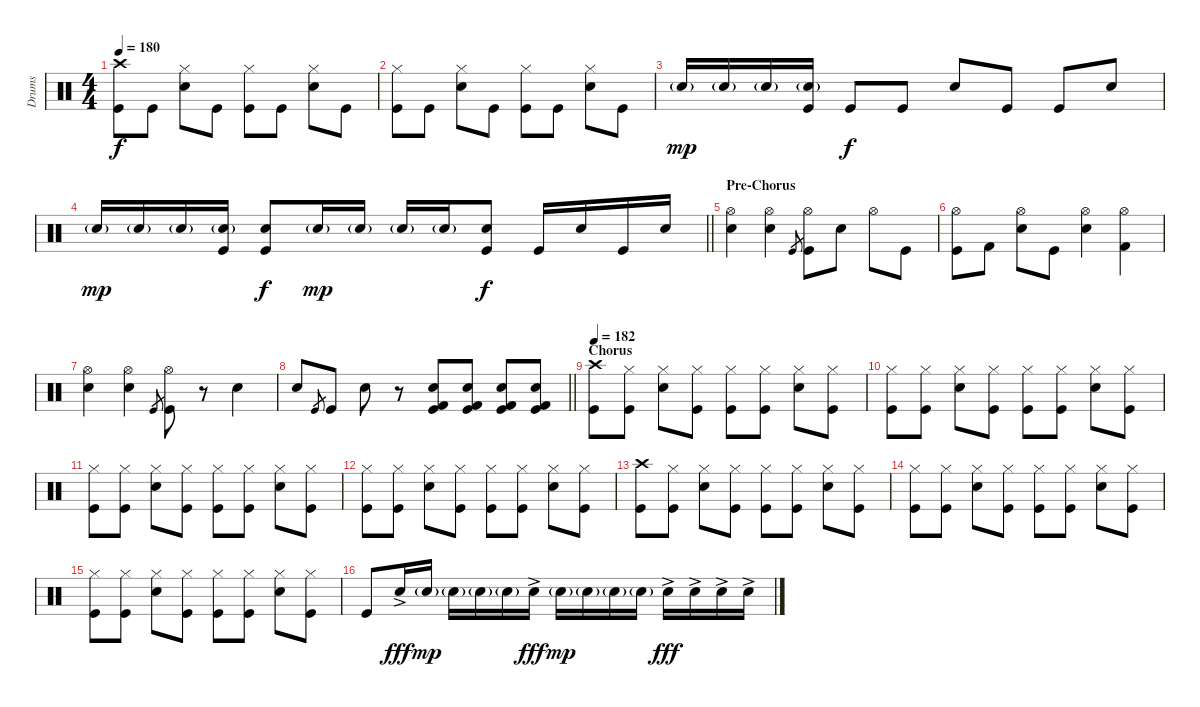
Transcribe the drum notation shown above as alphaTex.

\track ("Drums" "Drums") {instrument percussion}
\staff {score}
\articulation defaults
\ts (4 4)
\tempo 180
\clef neutral
\ks c
("Crash high (hit)" "Kick (hit)").8{dy f} "Kick (hit)".8 ("Hi-Hat (closed)" "Snare (hit) 2").8 "Kick (hit)".8 ("Hi-Hat (closed)" "Kick (hit)").8 "Kick (hit)".8 ("Hi-Hat (closed)" "Snare (hit) 2").8 "Kick (hit)".8 |
("Hi-Hat (closed)" "Kick (hit)").8 "Kick (hit)".8 ("Hi-Hat (closed)" "Snare (hit) 2").8 "Kick (hit)".8 ("Hi-Hat (closed)" "Kick (hit)").8 "Kick (hit)".8 ("Hi-Hat (closed)" "Snare (hit) 2").8 "Kick (hit)".8 |
"Snare (hit) 2"{g}.16{dy mp} "Snare (hit) 2"{g}.16 "Snare (hit) 2"{g}.16 ("Snare (hit) 2"{g} "Kick (hit)").16 "Kick (hit)".8{dy f} "Kick (hit)".8 "Snare (hit) 2".8 "Kick (hit)".8 "Kick (hit)".8 "Snare (hit) 2".8 |
\barLineRight lightlight "Snare (hit) 2"{g}.16{dy mp} "Snare (hit) 2"{g}.16 "Snare (hit) 2"{g}.16
("Snare (hit) 2"{g} "Kick (hit)").16 ("Snare (hit) 2" "Kick (hit)").8{dy f} "Snare (hit) 2"{g}.16{dy mp} "Snare (hit) 2"{g}.16 "Snare (hit) 2"{g}.16 "Snare (hit) 2"{g}.16 ("Snare (hit) 2" "Kick (hit)").8{dy f} "Kick (hit)".16 "Snare (hit) 2".16 "Kick (hit)".16 "Snare (hit) 2".16 |
\section ("" "Pre-Chorus")
("Hi-Hat (open)" "Snare (hit) 2").4 ("Hi-Hat (open)" "Snare (hit) 2").4 "Kick (hit)".8{gr} ("Hi-Hat (open)" "Kick (hit)").8 "Snare (hit) 2".8 "Hi-Hat (open)".8 "Kick (hit)".8 |
("Hi-Hat (open)" "Kick (hit)").8 "Kick (hit) 2".8 ("Hi-Hat (open)" "Snare (hit) 2").8 "Kick (hit)".8 ("Hi-Hat (open)" "Snare (hit) 2").4 ("Hi-Hat (open)" "Kick (hit) 2").4 |
("Hi-Hat (open)" "Snare (hit) 2").4 ("Hi-Hat (open)" "Snare (hit) 2").4 "Kick (hit)".8{gr} ("Hi-Hat (open)" "Kick (hit)").8 r.8 "Snare (hit) 2".4 |
\barLineRight lightlight "Snare (hit) 2".8 "Kick (hit)".8{gr} "Kick (hit)".8 "Snare (hit) 2".8
r.8 ("Kick (hit) 2" "Snare (hit) 2" "Kick (hit)").8 ("Kick (hit) 2" "Snare (hit) 2" "Kick (hit)").8 ("Kick (hit) 2" "Snare (hit) 2" "Kick (hit)").8 ("Kick (hit) 2" "Snare (hit) 2" "Kick (hit)").8 |
\section ("" "Chorus")
\tempo 182
("Crash high (hit)" "Kick (hit)").8 ("Hi-Hat (closed)" "Kick (hit)").8 ("Hi-Hat (closed)" "Snare (hit) 2").8 ("Hi-Hat (closed)" "Kick (hit)").8 ("Hi-Hat (closed)" "Kick (hit)").8 ("Hi-Hat (closed)" "Kick (hit)").8 ("Hi-Hat (closed)" "Snare (hit) 2").8 ("Hi-Hat (closed)" "Kick (hit)").8 |
("Hi-Hat (closed)" "Kick (hit)").8 ("Hi-Hat (closed)" "Kick (hit)").8 ("Hi-Hat (closed)" "Snare (hit) 2").8 ("Hi-Hat (closed)" "Kick (hit)").8 ("Hi-Hat (closed)" "Kick (hit)").8 ("Hi-Hat (closed)" "Kick (hit)").8 ("Hi-Hat (closed)" "Snare (hit) 2").8 ("Hi-Hat (closed)" "Kick (hit)").8 |
("Hi-Hat (closed)" "Kick (hit)").8 ("Hi-Hat (closed)" "Kick (hit)").8 ("Hi-Hat (closed)" "Snare (hit) 2").8 ("Hi-Hat (closed)" "Kick (hit)").8 ("Hi-Hat (closed)" "Kick (hit)").8 ("Hi-Hat (closed)" "Kick (hit)").8 ("Hi-Hat (closed)" "Snare (hit) 2").8 ("Hi-Hat (closed)" "Kick (hit)").8 |
("Hi-Hat (closed)" "Kick (hit)").8 ("Hi-Hat (closed)" "Kick (hit)").8 ("Hi-Hat (closed)" "Snare (hit) 2").8 ("Hi-Hat (closed)" "Kick (hit)").8 ("Hi-Hat (closed)" "Kick (hit)").8 ("Hi-Hat (closed)" "Kick (hit)").8 ("Hi-Hat (closed)" "Snare (hit) 2").8 ("Hi-Hat (closed)" "Kick (hit)").8 |
("Crash high (hit)" "Kick (hit)").8 ("Hi-Hat (closed)" "Kick (hit)").8 ("Hi-Hat (closed)" "Snare (hit) 2").8 ("Hi-Hat (closed)" "Kick (hit)").8 ("Hi-Hat (closed)" "Kick (hit)").8 ("Hi-Hat (closed)" "Kick (hit)").8 ("Hi-Hat (closed)" "Snare (hit) 2").8 ("Hi-Hat (closed)" "Kick (hit)").8 |
("Hi-Hat (closed)" "Kick (hit)").8 ("Hi-Hat (closed)" "Kick (hit)").8 ("Hi-Hat (closed)" "Snare (hit) 2").8 ("Hi-Hat (closed)" "Kick (hit)").8 ("Hi-Hat (closed)" "Kick (hit)").8 ("Hi-Hat (closed)" "Kick (hit)").8 ("Hi-Hat (closed)" "Snare (hit) 2").8 ("Hi-Hat (closed)" "Kick (hit)").8 |
("Hi-Hat (closed)" "Kick (hit)").8 ("Hi-Hat (closed)" "Kick (hit)").8 ("Hi-Hat (closed)" "Snare (hit) 2").8 ("Hi-Hat (closed)" "Kick (hit)").8 ("Hi-Hat (closed)" "Kick (hit)").8 ("Hi-Hat (closed)" "Kick (hit)").8 ("Hi-Hat (closed)" "Snare (hit) 2").8 ("Hi-Hat (closed)" "Kick (hit)").8 |
"Kick (hit)".8 "Snare (hit) 2"{ac}.16{dy fff} "Snare (hit) 2"{g}.16{dy mp} "Snare (hit) 2"{g}.16 "Snare (hit) 2"{g}.16 "Snare (hit) 2"{g}.16 "Snare (hit) 2"{ac}.16{dy fff} "Snare (hit) 2"{g}.16{dy mp} "Snare (hit) 2"{g}.16 "Snare (hit) 2"{g}.16 "Snare (hit) 2"{g}.16 "Snare (hit) 2"{ac}.16{dy fff} "Snare (hit) 2"{ac}.16 "Snare (hit) 2"{ac}.16 "Snare (hit) 2"{ac}.16
